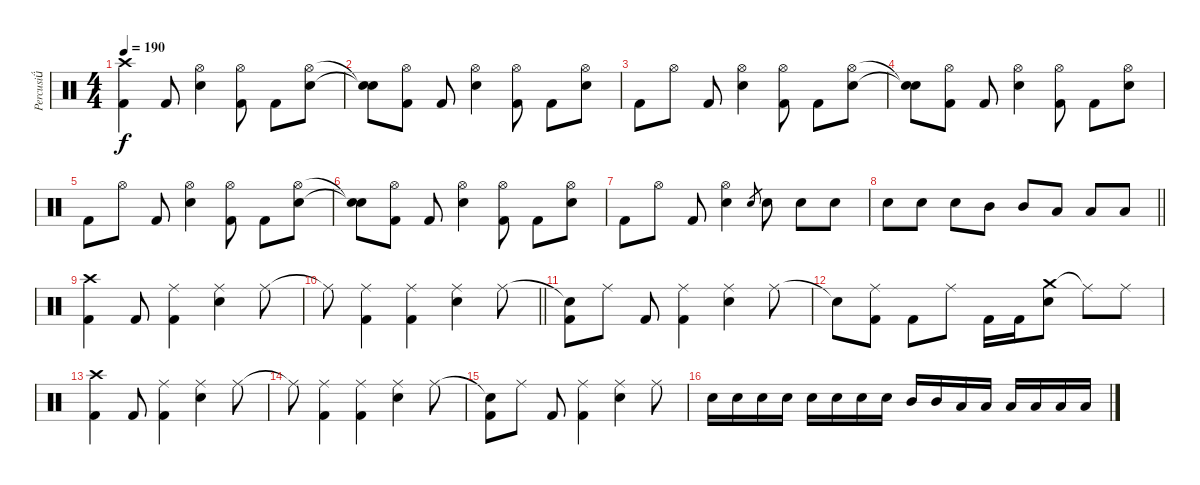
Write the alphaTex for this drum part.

\track ("Percusi" "Percusi") {instrument percussion}
\staff {score}
\articulation defaults
\ts (4 4)
\tempo 190
\clef neutral
\ks c
("Crash high (hit)" "Kick (hit) 2").4{dy f} "Kick (hit) 2".8 ("Hi-Hat (open)" "Electric Snare (hit)").4 ("Hi-Hat (open)" "Kick (hit) 2").8 "Kick (hit) 2".8 ("Hi-Hat (open)" "Electric Snare (hit)").8 |
("Snare (hit)"{t} "Snare (hit)"{t}).8 ("Hi-Hat (open)" "Kick (hit) 2").8 "Kick (hit) 2".8 ("Hi-Hat (open)" "Electric Snare (hit)").4 ("Hi-Hat (open)" "Kick (hit) 2").8 "Kick (hit) 2".8 ("Hi-Hat (open)" "Electric Snare (hit)").8 |
"Kick (hit) 2".8 "Hi-Hat (open)".8 "Kick (hit) 2".8 ("Hi-Hat (open)" "Electric Snare (hit)").4 ("Hi-Hat (open)" "Kick (hit) 2").8 "Kick (hit) 2".8 ("Hi-Hat (open)" "Electric Snare (hit)").8 |
("Snare (hit)"{t} "Snare (hit)"{t}).8 ("Hi-Hat (open)" "Kick (hit) 2").8 "Kick (hit) 2".8 ("Hi-Hat (open)" "Electric Snare (hit)").4 ("Hi-Hat (open)" "Kick (hit) 2").8 "Kick (hit) 2".8 ("Hi-Hat (open)" "Electric Snare (hit)").8 |
"Kick (hit) 2".8 "Hi-Hat (open)".8 "Kick (hit) 2".8 ("Hi-Hat (open)" "Electric Snare (hit)").4 ("Hi-Hat (open)" "Kick (hit) 2").8 "Kick (hit) 2".8 ("Hi-Hat (open)" "Electric Snare (hit)").8 |
("Snare (hit)"{t} "Snare (hit)"{t}).8 ("Hi-Hat (open)" "Kick (hit) 2").8 "Kick (hit) 2".8 ("Hi-Hat (open)" "Electric Snare (hit)").4 ("Hi-Hat (open)" "Kick (hit) 2").8 "Kick (hit) 2".8 ("Hi-Hat (open)" "Electric Snare (hit)").8 |
"Kick (hit) 2".8 "Hi-Hat (open)".8 "Kick (hit) 2".8 ("Hi-Hat (open)" "Electric Snare (hit)").4 "Electric Snare (hit)".8{gr} "Electric Snare (hit)".8 "Electric Snare (hit)".8 "Electric Snare (hit)".8 |
\barLineRight lightlight "Electric Snare (hit)".8 "Electric Snare (hit)".8 "Electric Snare (hit)".8 "Mid Tom (hit)".8 "Mid Tom (hit)".8 "Low Tom (hit)".8 "Low Tom (hit)".8 "Low Floor Tom (hit)".8
|
("Crash high (hit)" "Kick (hit) 2").4 "Kick (hit) 2".8 ("Ride (middle)" "Kick (hit) 2").4 ("Ride (middle)" "Electric Snare (hit)").4 "Ride (middle)".8 |
\barLineRight lightlight "Ride (middle)"{t}.8
("Ride (middle)" "Kick (hit) 2").4 ("Ride (middle)" "Kick (hit) 2").4 ("Ride (middle)" "Electric Snare (hit)").4 "Ride (middle)".8 |
\section ("" "")
("Snare (hit)"{t} "Kick (hit) 2").8 "Ride (middle)".8 "Kick (hit) 2".8 ("Ride (middle)" "Kick (hit) 2").4 ("Ride (middle)" "Electric Snare (hit)").4 "Ride (middle)".8 |
"Snare (hit)"{t}.8 ("Ride (middle)" "Kick (hit) 2").8 "Kick (hit) 2".8 "Ride (middle)".8 "Kick (hit) 2".16 "Kick (hit) 2".16 ("Crash medium (hit)" "Electric Snare (hit)").8 "Ride (middle)"{t}.8 "Ride (middle)".8 |
("Crash high (hit)" "Kick (hit) 2").4 "Kick (hit) 2".8 ("Ride (middle)" "Kick (hit) 2").4 ("Ride (middle)" "Electric Snare (hit)").4 "Ride (middle)".8 |
"Ride (middle)"{t}.8 ("Ride (middle)" "Kick (hit) 2").4 ("Ride (middle)" "Kick (hit) 2").4 ("Ride (middle)" "Electric Snare (hit)").4 "Ride (middle)".8 |
("Snare (hit)"{t} "Kick (hit) 2").8 "Ride (middle)".8 "Kick (hit) 2".8 ("Ride (middle)" "Kick (hit) 2").4 ("Ride (middle)" "Electric Snare (hit)").4 "Ride (middle)".8 |
"Electric Snare (hit)".16 "Electric Snare (hit)".16 "Electric Snare (hit)".16 "Electric Snare (hit)".16 "Electric Snare (hit)".16 "Electric Snare (hit)".16 "Electric Snare (hit)".16 "Electric Snare (hit)".16 "Mid Tom (hit)".16 "Mid Tom (hit)".16 "Low Tom (hit)".16 "Low Tom (hit)".16 "Low Floor Tom (hit)".16 "Low Floor Tom (hit)".16 "Low Floor Tom (hit)".16 "Low Floor Tom (hit)".16
